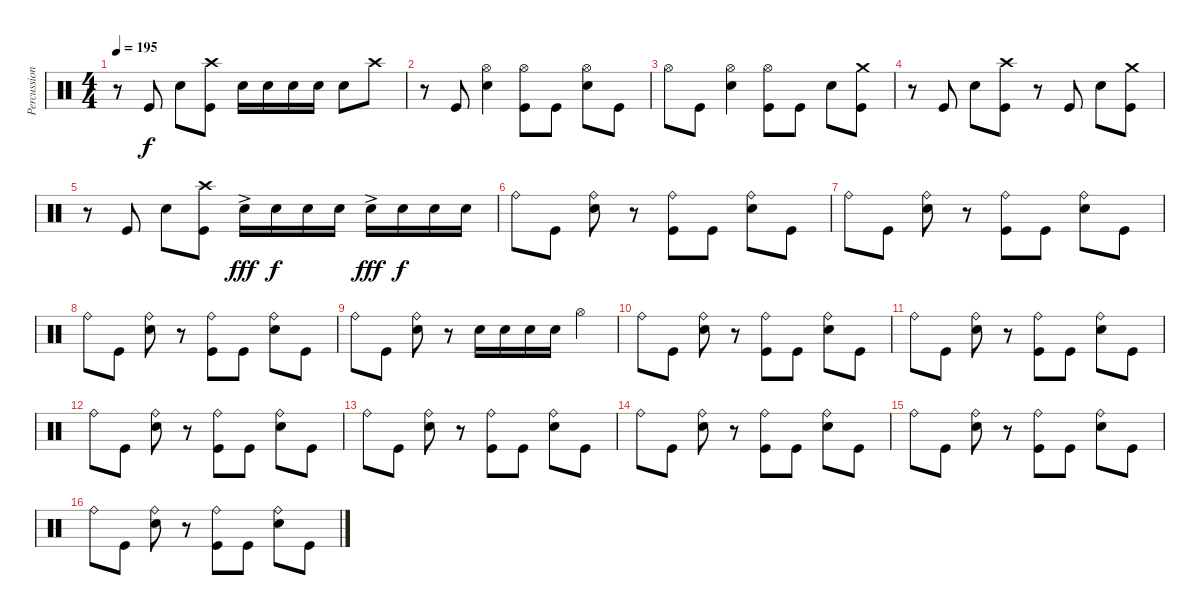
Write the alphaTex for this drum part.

\track ("Percussion" "Percussion") {instrument percussion}
\staff {score}
\articulation defaults
\ts (4 4)
\tempo 195
\clef neutral
\ks c
r.8{dy f} "Kick (hit)".8 "Electric Snare (hit)".8 ("Crash high (hit)" "Kick (hit)").8 "Electric Snare (hit)".16 "Electric Snare (hit)".16 "Electric Snare (hit)".16 "Electric Snare (hit)".16 "Electric Snare (hit)".8 "Crash high (hit)".8 |
r.8 "Kick (hit)".8 ("Hi-Hat (open)" "Electric Snare (hit)").4 ("Hi-Hat (open)" "Kick (hit)").8 "Kick (hit)".8 ("Hi-Hat (open)" "Electric Snare (hit)").8 "Kick (hit)".8 |
"Hi-Hat (open)".8 "Kick (hit)".8 ("Hi-Hat (open)" "Electric Snare (hit)").4 ("Hi-Hat (open)" "Kick (hit)").8 "Kick (hit)".8 "Electric Snare (hit)".8 ("Crash medium (hit)" "Kick (hit)").8 |
r.8 "Kick (hit)".8 "Electric Snare (hit)".8 ("Crash high (hit)" "Kick (hit)").8 r.8 "Kick (hit)".8 "Electric Snare (hit)".8 ("Crash medium (hit)" "Kick (hit)").8 |
r.8 "Kick (hit)".8 "Electric Snare (hit)".8 ("Crash high (hit)" "Kick (hit)").8 "Electric Snare (hit)"{ac}.16{dy fff} "Electric Snare (hit)".16{dy f} "Electric Snare (hit)".16 "Electric Snare (hit)".16 "Electric Snare (hit)"{ac}.16{dy fff} "Electric Snare (hit)".16{dy f} "Electric Snare (hit)".16 "Electric Snare (hit)".16 |
"Ride (bell)".8 "Kick (hit)".8 ("Ride (bell)" "Electric Snare (hit)").8 r.8 ("Ride (bell)" "Kick (hit)").8 "Kick (hit)".8 ("Ride (bell)" "Electric Snare (hit)").8 "Kick (hit)".8 |
"Ride (bell)".8 "Kick (hit)".8 ("Ride (bell)" "Electric Snare (hit)").8 r.8 ("Ride (bell)" "Kick (hit)").8 "Kick (hit)".8 ("Ride (bell)" "Electric Snare (hit)").8 "Kick (hit)".8 |
"Ride (bell)".8 "Kick (hit)".8 ("Ride (bell)" "Electric Snare (hit)").8 r.8 ("Ride (bell)" "Kick (hit)").8 "Kick (hit)".8 ("Ride (bell)" "Electric Snare (hit)").8 "Kick (hit)".8 |
"Ride (bell)".8 "Kick (hit)".8 ("Ride (bell)" "Electric Snare (hit)").8 r.8 "Electric Snare (hit)".16 "Electric Snare (hit)".16 "Electric Snare (hit)".16 "Electric Snare (hit)".16 "Hi-Hat (open)".4 |
"Ride (bell)".8 "Kick (hit)".8 ("Ride (bell)" "Electric Snare (hit)").8 r.8 ("Ride (bell)" "Kick (hit)").8 "Kick (hit)".8 ("Ride (bell)" "Electric Snare (hit)").8 "Kick (hit)".8 |
"Ride (bell)".8 "Kick (hit)".8 ("Ride (bell)" "Electric Snare (hit)").8 r.8 ("Ride (bell)" "Kick (hit)").8 "Kick (hit)".8 ("Ride (bell)" "Electric Snare (hit)").8 "Kick (hit)".8 |
"Ride (bell)".8 "Kick (hit)".8 ("Ride (bell)" "Electric Snare (hit)").8 r.8 ("Ride (bell)" "Kick (hit)").8 "Kick (hit)".8 ("Ride (bell)" "Electric Snare (hit)").8 "Kick (hit)".8 |
"Ride (bell)".8 "Kick (hit)".8 ("Ride (bell)" "Electric Snare (hit)").8 r.8 ("Ride (bell)" "Kick (hit)").8 "Kick (hit)".8 ("Ride (bell)" "Electric Snare (hit)").8 "Kick (hit)".8 |
"Ride (bell)".8 "Kick (hit)".8 ("Ride (bell)" "Electric Snare (hit)").8 r.8 ("Ride (bell)" "Kick (hit)").8 "Kick (hit)".8 ("Ride (bell)" "Electric Snare (hit)").8 "Kick (hit)".8 |
"Ride (bell)".8 "Kick (hit)".8 ("Ride (bell)" "Electric Snare (hit)").8 r.8 ("Ride (bell)" "Kick (hit)").8 "Kick (hit)".8 ("Ride (bell)" "Electric Snare (hit)").8 "Kick (hit)".8 |
"Ride (bell)".8 "Kick (hit)".8 ("Ride (bell)" "Electric Snare (hit)").8 r.8 ("Ride (bell)" "Kick (hit)").8 "Kick (hit)".8 ("Ride (bell)" "Electric Snare (hit)").8 "Kick (hit)".8
